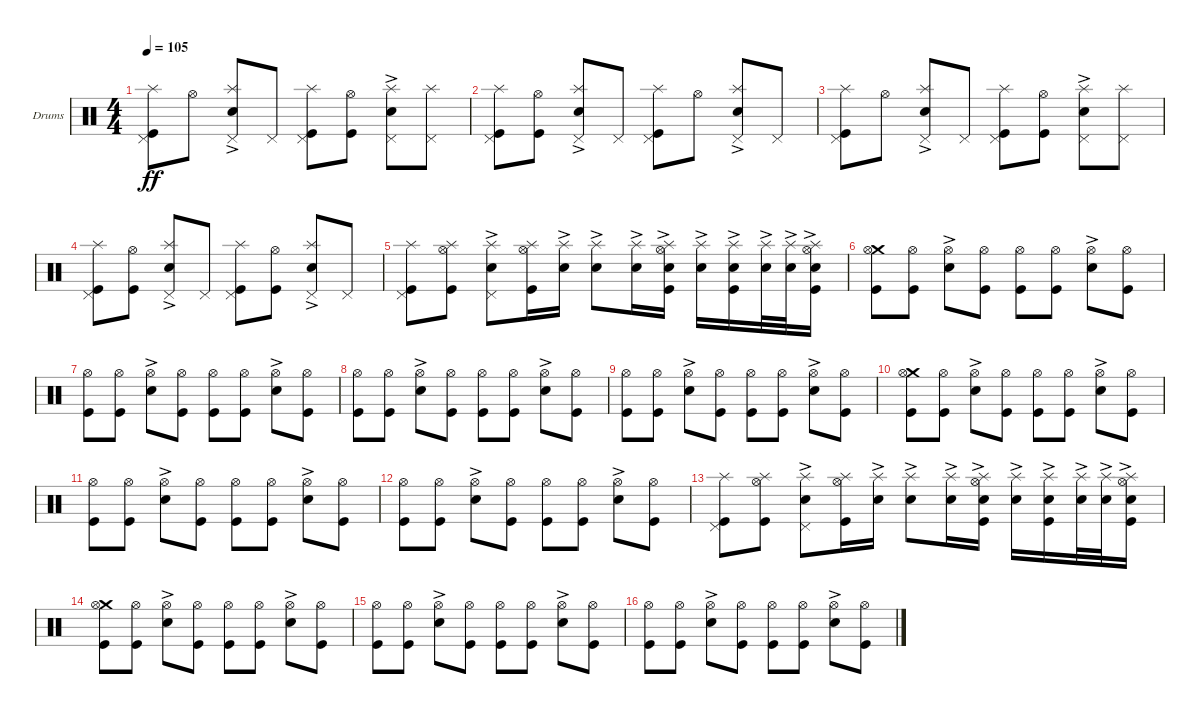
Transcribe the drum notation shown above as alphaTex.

\bracketExtendMode groupsimilarinstruments
\firstSystemTrackNameOrientation horizontal
\otherSystemsTrackNameOrientation horizontal
\track ("Drumkit" "Drums") {instrument percussion}
\staff {score}
\articulation defaults
\ts (4 4)
\tempo 105
\clef neutral
\ks c
("Kick (hit)" "Pedal Hi-Hat (hit)" "Splash (hit)").8{dy ff} "Hi-Hat (open)".8 ("Pedal Hi-Hat (hit)" "Snare (hit) 2"{ac} "Splash (hit)").8 "Pedal Hi-Hat (hit)".8 ("Kick (hit)" "Pedal Hi-Hat (hit)" "Splash (hit)").8 ("Kick (hit)" "Hi-Hat (open)").8 ("Pedal Hi-Hat (hit)" "Snare (hit) 2"{ac} "Splash (hit)").8 ("Pedal Hi-Hat (hit)" "Splash (hit)").8 |
("Kick (hit)" "Pedal Hi-Hat (hit)" "Splash (hit)").8 ("Kick (hit)" "Hi-Hat (open)").8 ("Pedal Hi-Hat (hit)" "Snare (hit) 2"{ac} "Splash (hit)").8 "Pedal Hi-Hat (hit)".8 ("Kick (hit)" "Pedal Hi-Hat (hit)" "Splash (hit)").8 "Hi-Hat (open)".8 ("Pedal Hi-Hat (hit)" "Snare (hit) 2"{ac} "Splash (hit)").8 "Pedal Hi-Hat (hit)".8 |
("Kick (hit)" "Pedal Hi-Hat (hit)" "Splash (hit)").8 "Hi-Hat (open)".8 ("Pedal Hi-Hat (hit)" "Snare (hit) 2"{ac} "Splash (hit)").8 "Pedal Hi-Hat (hit)".8 ("Kick (hit)" "Pedal Hi-Hat (hit)" "Splash (hit)").8 ("Kick (hit)" "Hi-Hat (open)").8 ("Pedal Hi-Hat (hit)" "Snare (hit) 2"{ac} "Splash (hit)").8 ("Pedal Hi-Hat (hit)" "Splash (hit)").8 |
("Kick (hit)" "Pedal Hi-Hat (hit)" "Splash (hit)").8 ("Kick (hit)" "Hi-Hat (open)").8 ("Pedal Hi-Hat (hit)" "Snare (hit) 2"{ac} "Splash (hit)").8 "Pedal Hi-Hat (hit)".8 ("Kick (hit)" "Pedal Hi-Hat (hit)" "Splash (hit)").8 ("Kick (hit)" "Hi-Hat (open)").8 ("Pedal Hi-Hat (hit)" "Snare (hit) 2"{ac} "Splash (hit)").8 "Pedal Hi-Hat (hit)".8 |
("Kick (hit)" "Pedal Hi-Hat (hit)" "Splash (hit)").8 ("Kick (hit)" "Hi-Hat (open)" "Splash (hit)").8 ("Pedal Hi-Hat (hit)" "Snare (hit) 2"{ac} "Splash (hit)").8 ("Kick (hit)" "Hi-Hat (open)" "Splash (hit)").16 ("Snare (hit) 2"{ac} "Splash (hit)").16 ("Snare (hit) 2"{ac} "Splash (hit)").8 ("Snare (hit) 2"{ac} "Splash (hit)").16 ("Kick (hit)" "Hi-Hat (open)" "Splash (hit)" "Snare (hit) 2"{ac}).16 ("Snare (hit) 2"{ac} "Splash (hit)").16 ("Kick (hit)" "Splash (hit)" "Snare (hit) 2"{ac}).16 ("Snare (hit) 2"{ac} "Splash (hit)").32 ("Snare (hit) 2"{ac} "Splash (hit)").32 ("Kick (hit)" "Hi-Hat (open)" "Splash (hit)" "Snare (hit) 2"{ac}).16 |
("Kick (hit)" "Crash medium (hit)" "Hi-Hat (open)").8 ("Kick (hit)" "Hi-Hat (open)").8 ("Snare (hit) 2"{ac} "Hi-Hat (open)").8 ("Kick (hit)" "Hi-Hat (open)").8 ("Kick (hit)" "Hi-Hat (open)").8 ("Kick (hit)" "Hi-Hat (open)").8 ("Snare (hit) 2"{ac} "Hi-Hat (open)").8 ("Kick (hit)" "Hi-Hat (open)").8 |
("Kick (hit)" "Hi-Hat (open)").8 ("Kick (hit)" "Hi-Hat (open)").8 ("Snare (hit) 2"{ac} "Hi-Hat (open)").8 ("Kick (hit)" "Hi-Hat (open)").8 ("Kick (hit)" "Hi-Hat (open)").8 ("Kick (hit)" "Hi-Hat (open)").8 ("Snare (hit) 2"{ac} "Hi-Hat (open)").8 ("Kick (hit)" "Hi-Hat (open)").8 |
("Kick (hit)" "Hi-Hat (open)").8 ("Kick (hit)" "Hi-Hat (open)").8 ("Snare (hit) 2"{ac} "Hi-Hat (open)").8 ("Kick (hit)" "Hi-Hat (open)").8 ("Kick (hit)" "Hi-Hat (open)").8 ("Kick (hit)" "Hi-Hat (open)").8 ("Snare (hit) 2"{ac} "Hi-Hat (open)").8 ("Kick (hit)" "Hi-Hat (open)").8 |
("Kick (hit)" "Hi-Hat (open)").8 ("Kick (hit)" "Hi-Hat (open)").8 ("Snare (hit) 2"{ac} "Hi-Hat (open)").8 ("Kick (hit)" "Hi-Hat (open)").8 ("Kick (hit)" "Hi-Hat (open)").8 ("Kick (hit)" "Hi-Hat (open)").8 ("Snare (hit) 2"{ac} "Hi-Hat (open)").8 ("Kick (hit)" "Hi-Hat (open)").8 |
("Kick (hit)" "Crash medium (hit)" "Hi-Hat (open)").8 ("Kick (hit)" "Hi-Hat (open)").8 ("Snare (hit) 2"{ac} "Hi-Hat (open)").8 ("Kick (hit)" "Hi-Hat (open)").8 ("Kick (hit)" "Hi-Hat (open)").8 ("Kick (hit)" "Hi-Hat (open)").8 ("Snare (hit) 2"{ac} "Hi-Hat (open)").8 ("Kick (hit)" "Hi-Hat (open)").8 |
("Kick (hit)" "Hi-Hat (open)").8 ("Kick (hit)" "Hi-Hat (open)").8 ("Snare (hit) 2"{ac} "Hi-Hat (open)").8 ("Kick (hit)" "Hi-Hat (open)").8 ("Kick (hit)" "Hi-Hat (open)").8 ("Kick (hit)" "Hi-Hat (open)").8 ("Snare (hit) 2"{ac} "Hi-Hat (open)").8 ("Kick (hit)" "Hi-Hat (open)").8 |
("Kick (hit)" "Hi-Hat (open)").8 ("Kick (hit)" "Hi-Hat (open)").8 ("Snare (hit) 2"{ac} "Hi-Hat (open)").8 ("Kick (hit)" "Hi-Hat (open)").8 ("Kick (hit)" "Hi-Hat (open)").8 ("Kick (hit)" "Hi-Hat (open)").8 ("Snare (hit) 2"{ac} "Hi-Hat (open)").8 ("Kick (hit)" "Hi-Hat (open)").8 |
("Kick (hit)" "Pedal Hi-Hat (hit)" "Splash (hit)").8 ("Kick (hit)" "Hi-Hat (open)" "Splash (hit)").8 ("Pedal Hi-Hat (hit)" "Snare (hit) 2"{ac} "Splash (hit)").8 ("Kick (hit)" "Hi-Hat (open)" "Splash (hit)").16 ("Snare (hit) 2"{ac} "Splash (hit)").16 ("Snare (hit) 2"{ac} "Splash (hit)").8 ("Snare (hit) 2"{ac} "Splash (hit)").16 ("Kick (hit)" "Hi-Hat (open)" "Splash (hit)" "Snare (hit) 2"{ac}).16 ("Snare (hit) 2"{ac} "Splash (hit)").16 ("Kick (hit)" "Splash (hit)" "Snare (hit) 2"{ac}).16 ("Snare (hit) 2"{ac} "Splash (hit)").32 ("Snare (hit) 2"{ac} "Splash (hit)").32 ("Kick (hit)" "Hi-Hat (open)" "Splash (hit)" "Snare (hit) 2"{ac}).16 |
("Kick (hit)" "Crash medium (hit)" "Hi-Hat (open)").8 ("Kick (hit)" "Hi-Hat (open)").8 ("Snare (hit) 2"{ac} "Hi-Hat (open)").8 ("Kick (hit)" "Hi-Hat (open)").8 ("Kick (hit)" "Hi-Hat (open)").8 ("Kick (hit)" "Hi-Hat (open)").8 ("Snare (hit) 2"{ac} "Hi-Hat (open)").8 ("Kick (hit)" "Hi-Hat (open)").8 |
("Kick (hit)" "Hi-Hat (open)").8 ("Kick (hit)" "Hi-Hat (open)").8 ("Snare (hit) 2"{ac} "Hi-Hat (open)").8 ("Kick (hit)" "Hi-Hat (open)").8 ("Kick (hit)" "Hi-Hat (open)").8 ("Kick (hit)" "Hi-Hat (open)").8 ("Snare (hit) 2"{ac} "Hi-Hat (open)").8 ("Kick (hit)" "Hi-Hat (open)").8 |
("Kick (hit)" "Hi-Hat (open)").8 ("Kick (hit)" "Hi-Hat (open)").8 ("Snare (hit) 2"{ac} "Hi-Hat (open)").8 ("Kick (hit)" "Hi-Hat (open)").8 ("Kick (hit)" "Hi-Hat (open)").8 ("Kick (hit)" "Hi-Hat (open)").8 ("Snare (hit) 2"{ac} "Hi-Hat (open)").8 ("Kick (hit)" "Hi-Hat (open)").8
